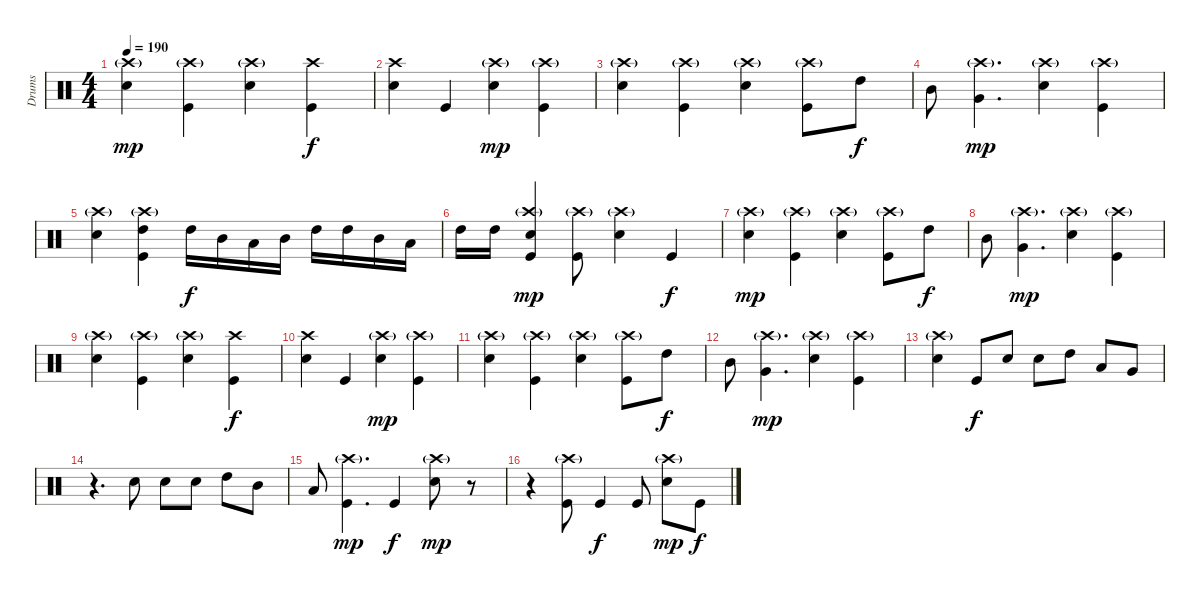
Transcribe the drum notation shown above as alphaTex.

\track ("Drums" "Drums") {instrument percussion}
\staff {score}
\articulation defaults
\ts (4 4)
\tempo 190
\clef neutral
\ks c
("Electric Snare (hit)" "Crash high (hit)"{g}).4{dy mp} ("Kick (hit)" "Crash high (hit)"{g}).4 ("Electric Snare (hit)" "Crash high (hit)"{g}).4 ("Kick (hit)" "Crash high (hit)").4{dy f} |
("Electric Snare (hit)" "Crash high (hit)").4 "Kick (hit)".4 ("Electric Snare (hit)" "Crash high (hit)"{g}).4{dy mp} ("Kick (hit)" "Crash high (hit)"{g}).4 |
("Electric Snare (hit)" "Crash high (hit)"{g}).4 ("Kick (hit)" "Crash high (hit)"{g}).4 ("Electric Snare (hit)" "Crash high (hit)"{g}).4 ("Kick (hit)" "Crash high (hit)"{g}).8 "High Tom (hit)".8{dy f} |
"Mid Tom (hit)".8 ("Very Low Tom (hit)" "Crash high (hit)"{g}).4{d dy mp} ("Electric Snare (hit)" "Crash high (hit)"{g}).4 ("Kick (hit)" "Crash high (hit)"{g}).4 |
("Electric Snare (hit)" "Crash high (hit)"{g}).4 ("High Tom (hit)" "Kick (hit)" "Crash high (hit)"{g}).4 "High Tom (hit)".16{dy f} "Mid Tom (hit)".16 "Low Tom (hit)".16 "Mid Tom (hit)".16 "High Tom (hit)".16 "High Tom (hit)".16 "Mid Tom (hit)".16 "Low Tom (hit)".16 |
"High Tom (hit)".16 "High Tom (hit)".16 ("Crash high (hit)"{g} "Kick (hit)" "Electric Snare (hit)").4{dy mp} ("Kick (hit)" "Crash high (hit)"{g}).8 ("Electric Snare (hit)" "Crash high (hit)"{g}).4 "Kick (hit)".4{dy f} |
("Electric Snare (hit)" "Crash high (hit)"{g}).4{dy mp} ("Kick (hit)" "Crash high (hit)"{g}).4 ("Electric Snare (hit)" "Crash high (hit)"{g}).4 ("Kick (hit)" "Crash high (hit)"{g}).8 "High Tom (hit)".8{dy f} |
"Mid Tom (hit)".8 ("Very Low Tom (hit)" "Crash high (hit)"{g}).4{d dy mp} ("Electric Snare (hit)" "Crash high (hit)"{g}).4 ("Kick (hit)" "Crash high (hit)"{g}).4 |
("Electric Snare (hit)" "Crash high (hit)"{g}).4 ("Kick (hit)" "Crash high (hit)"{g}).4 ("Electric Snare (hit)" "Crash high (hit)"{g}).4 ("Kick (hit)" "Crash high (hit)").4{dy f} |
("Electric Snare (hit)" "Crash high (hit)").4 "Kick (hit)".4 ("Electric Snare (hit)" "Crash high (hit)"{g}).4{dy mp} ("Kick (hit)" "Crash high (hit)"{g}).4 |
("Electric Snare (hit)" "Crash high (hit)"{g}).4 ("Kick (hit)" "Crash high (hit)"{g}).4 ("Electric Snare (hit)" "Crash high (hit)"{g}).4 ("Kick (hit)" "Crash high (hit)"{g}).8 "High Tom (hit)".8{dy f} |
"Mid Tom (hit)".8 ("Very Low Tom (hit)" "Crash high (hit)"{g}).4{d dy mp} ("Electric Snare (hit)" "Crash high (hit)"{g}).4 ("Kick (hit)" "Crash high (hit)"{g}).4 |
("Electric Snare (hit)" "Crash high (hit)"{g}).4 "Kick (hit)".8{dy f} "Electric Snare (hit)".8 "Electric Snare (hit)".8 "High Tom (hit)".8 "Low Tom (hit)".8 "Very Low Tom (hit)".8 |
r.4{d} "Electric Snare (hit)".8 "Electric Snare (hit)".8 "Electric Snare (hit)".8 "High Tom (hit)".8 "Mid Tom (hit)".8 |
"Low Tom (hit)".8 ("Kick (hit)" "Crash high (hit)"{g}).4{d dy mp} "Kick (hit)".4{dy f} ("Electric Snare (hit)" "Crash high (hit)"{g}).8{dy mp} r.8 |
r.4 ("Kick (hit)" "Crash high (hit)"{g}).8 "Kick (hit)".4{dy f} "Kick (hit)".8 ("Electric Snare (hit)" "Crash high (hit)"{g}).8{dy mp} "Kick (hit)".8{dy f}
